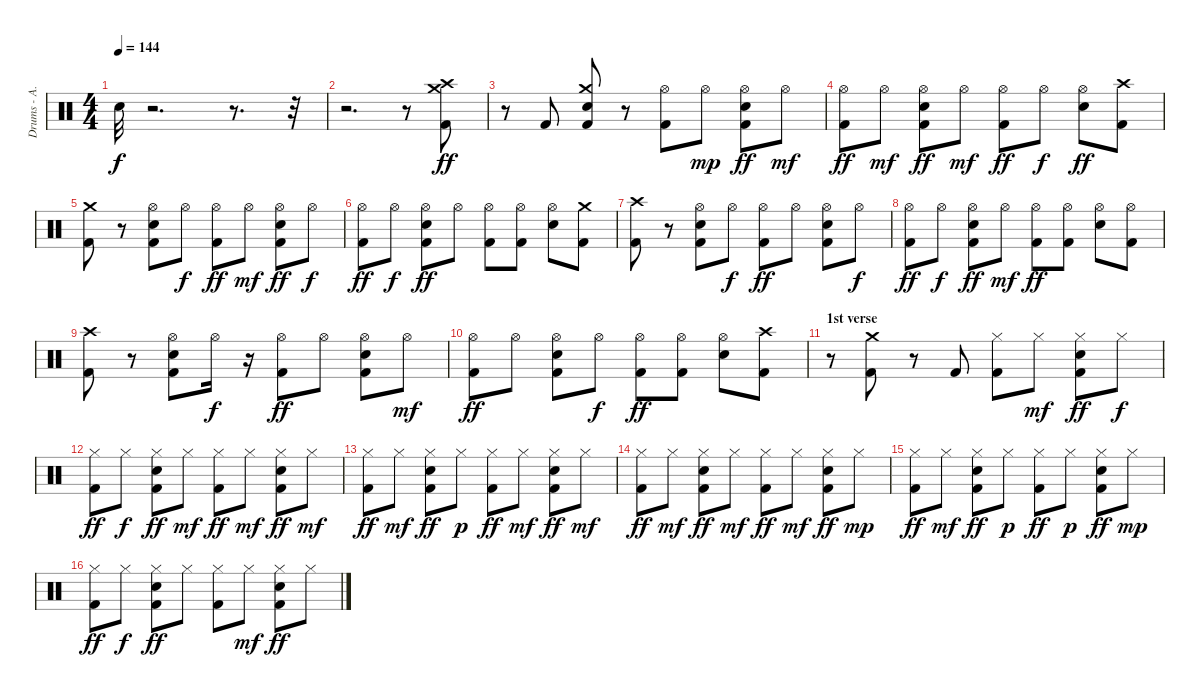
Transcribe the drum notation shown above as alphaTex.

\track ("Drums - A. Van Halen" "Drums - A.") {instrument percussion}
\staff {score}
\articulation defaults
\ts (4 4)
\tempo 144
\clef neutral
\ks c "Snare (hit)"{t}.32{dy f}
r.2{d} r.8{d} r.32 |
r.2{d} r.8 ("Kick (hit) 2" "Crash high (hit)" "Crash medium (hit)").8{dy ff} |
r.8 "Kick (hit) 2".8 ("Crash medium (hit)" "Kick (hit) 2" "Electric Snare (hit)").8 r.8 ("Kick (hit) 2" "Hi-Hat (open)").8 "Hi-Hat (open)".8{dy mp} ("Kick (hit) 2" "Hi-Hat (open)" "Electric Snare (hit)").8{dy ff} "Hi-Hat (open)".8{dy mf} |
("Kick (hit) 2" "Hi-Hat (open)").8{dy ff} "Hi-Hat (open)".8{dy mf} ("Hi-Hat (open)" "Kick (hit) 2" "Electric Snare (hit)").8{dy ff} "Hi-Hat (open)".8{dy mf} ("Hi-Hat (open)" "Kick (hit) 2").8{dy ff} "Hi-Hat (open)".8{dy f} ("Hi-Hat (open)" "Electric Snare (hit)").8{dy ff} ("Crash high (hit)" "Kick (hit) 2").8 |
("Kick (hit) 2" "Crash medium (hit)").8 r.8 ("Hi-Hat (open)" "Kick (hit) 2" "Electric Snare (hit)").8 "Hi-Hat (open)".8{dy f} ("Kick (hit) 2" "Hi-Hat (open)").8{dy ff} "Hi-Hat (open)".8{dy mf} ("Kick (hit) 2" "Hi-Hat (open)" "Electric Snare (hit)").8{dy ff} "Hi-Hat (open)".8{dy f} |
("Hi-Hat (open)" "Kick (hit) 2").8{dy ff} "Hi-Hat (open)".8{dy f} ("Hi-Hat (open)" "Kick (hit) 2" "Electric Snare (hit)").8{dy ff} "Hi-Hat (open)".8 ("Kick (hit) 2" "Hi-Hat (open)").8 ("Hi-Hat (open)" "Kick (hit) 2").8 ("Hi-Hat (open)" "Electric Snare (hit)").8 ("Kick (hit) 2" "Crash medium (hit)").8 |
("Kick (hit) 2" "Crash high (hit)").8 r.8 ("Hi-Hat (open)" "Electric Snare (hit)" "Kick (hit) 2").8 "Hi-Hat (open)".8{dy f} ("Hi-Hat (open)" "Kick (hit) 2").8{dy ff} "Hi-Hat (open)".8 ("Kick (hit) 2" "Hi-Hat (open)" "Electric Snare (hit)").8 "Hi-Hat (open)".8{dy f} |
("Kick (hit) 2" "Hi-Hat (open)").8{dy ff} "Hi-Hat (open)".8{dy f} ("Hi-Hat (open)" "Electric Snare (hit)" "Kick (hit) 2").8{dy ff} "Hi-Hat (open)".8{dy mf} ("Kick (hit) 2" "Hi-Hat (open)").8{dy ff} ("Hi-Hat (open)" "Kick (hit) 2").8 ("Electric Snare (hit)" "Hi-Hat (open)").8 ("Kick (hit) 2" "Hi-Hat (open)").8 |
("Kick (hit) 2" "Crash high (hit)").8 r.8 ("Hi-Hat (open)" "Electric Snare (hit)" "Kick (hit) 2").8 "Hi-Hat (open)".16{dy f} r.16 ("Kick (hit) 2" "Hi-Hat (open)").8{dy ff} "Hi-Hat (open)".8 ("Hi-Hat (open)" "Electric Snare (hit)" "Kick (hit) 2").8 "Hi-Hat (open)".8{dy mf} |
("Kick (hit) 2" "Hi-Hat (open)").8{dy ff} "Hi-Hat (open)".8 ("Hi-Hat (open)" "Electric Snare (hit)" "Kick (hit) 2").8 "Hi-Hat (open)".8{dy f} ("Hi-Hat (open)" "Kick (hit) 2").8{dy ff} ("Kick (hit) 2" "Hi-Hat (open)").8 ("Hi-Hat (open)" "Electric Snare (hit)").8 ("Kick (hit) 2" "Crash high (hit)").8 |
\section ("" "1st verse")
r.8 ("Kick (hit) 2" "Crash medium (hit)").8 r.8 "Kick (hit) 2".8 ("Kick (hit) 2" "Hi-Hat (closed)").8 "Hi-Hat (closed)".8{dy mf} ("Electric Snare (hit)" "Kick (hit) 2" "Hi-Hat (closed)").8{dy ff} "Hi-Hat (closed)".8{dy f} |
("Kick (hit) 2" "Hi-Hat (closed)").8{dy ff} "Hi-Hat (closed)".8{dy f} ("Kick (hit) 2" "Hi-Hat (closed)" "Electric Snare (hit)").8{dy ff} "Hi-Hat (closed)".8{dy mf} ("Kick (hit) 2" "Hi-Hat (closed)").8{dy ff} "Hi-Hat (closed)".8{dy mf} ("Electric Snare (hit)" "Hi-Hat (closed)" "Kick (hit) 2").8{dy ff} "Hi-Hat (closed)".8{dy mf} |
("Kick (hit) 2" "Hi-Hat (closed)").8{dy ff} "Hi-Hat (closed)".8{dy mf} ("Hi-Hat (closed)" "Electric Snare (hit)" "Kick (hit) 2").8{dy ff} "Hi-Hat (closed)".8{dy p} ("Hi-Hat (closed)" "Kick (hit) 2").8{dy ff} "Hi-Hat (closed)".8{dy mf} ("Hi-Hat (closed)" "Electric Snare (hit)" "Kick (hit) 2").8{dy ff} "Hi-Hat (closed)".8{dy mf} |
("Hi-Hat (closed)" "Kick (hit) 2").8{dy ff} "Hi-Hat (closed)".8{dy mf} ("Kick (hit) 2" "Hi-Hat (closed)" "Electric Snare (hit)").8{dy ff} "Hi-Hat (closed)".8{dy mf} ("Hi-Hat (closed)" "Kick (hit) 2").8{dy ff} "Hi-Hat (closed)".8{dy mf} ("Electric Snare (hit)" "Hi-Hat (closed)" "Kick (hit) 2").8{dy ff} "Hi-Hat (closed)".8{dy mp} |
("Hi-Hat (closed)" "Kick (hit) 2").8{dy ff} "Hi-Hat (closed)".8{dy mf} ("Electric Snare (hit)" "Hi-Hat (closed)" "Kick (hit) 2").8{dy ff} "Hi-Hat (closed)".8{dy p} ("Kick (hit) 2" "Hi-Hat (closed)").8{dy ff} "Hi-Hat (closed)".8{dy p} ("Kick (hit) 2" "Hi-Hat (closed)" "Electric Snare (hit)").8{dy ff} "Hi-Hat (closed)".8{dy mp} |
("Kick (hit) 2" "Hi-Hat (closed)").8{dy ff} "Hi-Hat (closed)".8{dy f} ("Electric Snare (hit)" "Hi-Hat (closed)" "Kick (hit) 2").8{dy ff} "Hi-Hat (closed)".8 ("Kick (hit) 2" "Hi-Hat (closed)").8 "Hi-Hat (closed)".8{dy mf} ("Kick (hit) 2" "Electric Snare (hit)" "Hi-Hat (closed)").8{dy ff} "Hi-Hat (closed)".8
